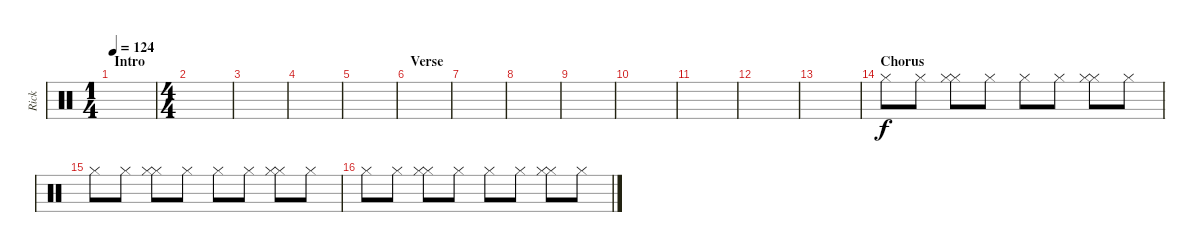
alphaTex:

\track ("Rick" "Rick") {instrument percussion}
\staff {score}
\articulation defaults
\ts (1 4)
\section ("" "Intro")
\tempo 124
\clef neutral
\ks c
|
\ts (4 4)
|
|
|
|
\section ("" "Verse")
|
|
|
|
|
|
|
|
\section ("" "Chorus")
"Hi-Hat (closed)".8{volume 7} "Hi-Hat (closed)".8 ("Hi-Hat (closed)" "Hi-Hat (closed)").8 "Hi-Hat (closed)".8 "Hi-Hat (closed)".8 "Hi-Hat (closed)".8 ("Hi-Hat (closed)" "Hi-Hat (closed)").8 "Hi-Hat (closed)".8 |
"Hi-Hat (closed)".8 "Hi-Hat (closed)".8 ("Hi-Hat (closed)" "Hi-Hat (closed)").8 "Hi-Hat (closed)".8 "Hi-Hat (closed)".8 "Hi-Hat (closed)".8 ("Hi-Hat (closed)" "Hi-Hat (closed)").8 "Hi-Hat (closed)".8 |
"Hi-Hat (closed)".8 "Hi-Hat (closed)".8 ("Hi-Hat (closed)" "Hi-Hat (closed)").8 "Hi-Hat (closed)".8 "Hi-Hat (closed)".8 "Hi-Hat (closed)".8 ("Hi-Hat (closed)" "Hi-Hat (closed)").8 "Hi-Hat (closed)".8
